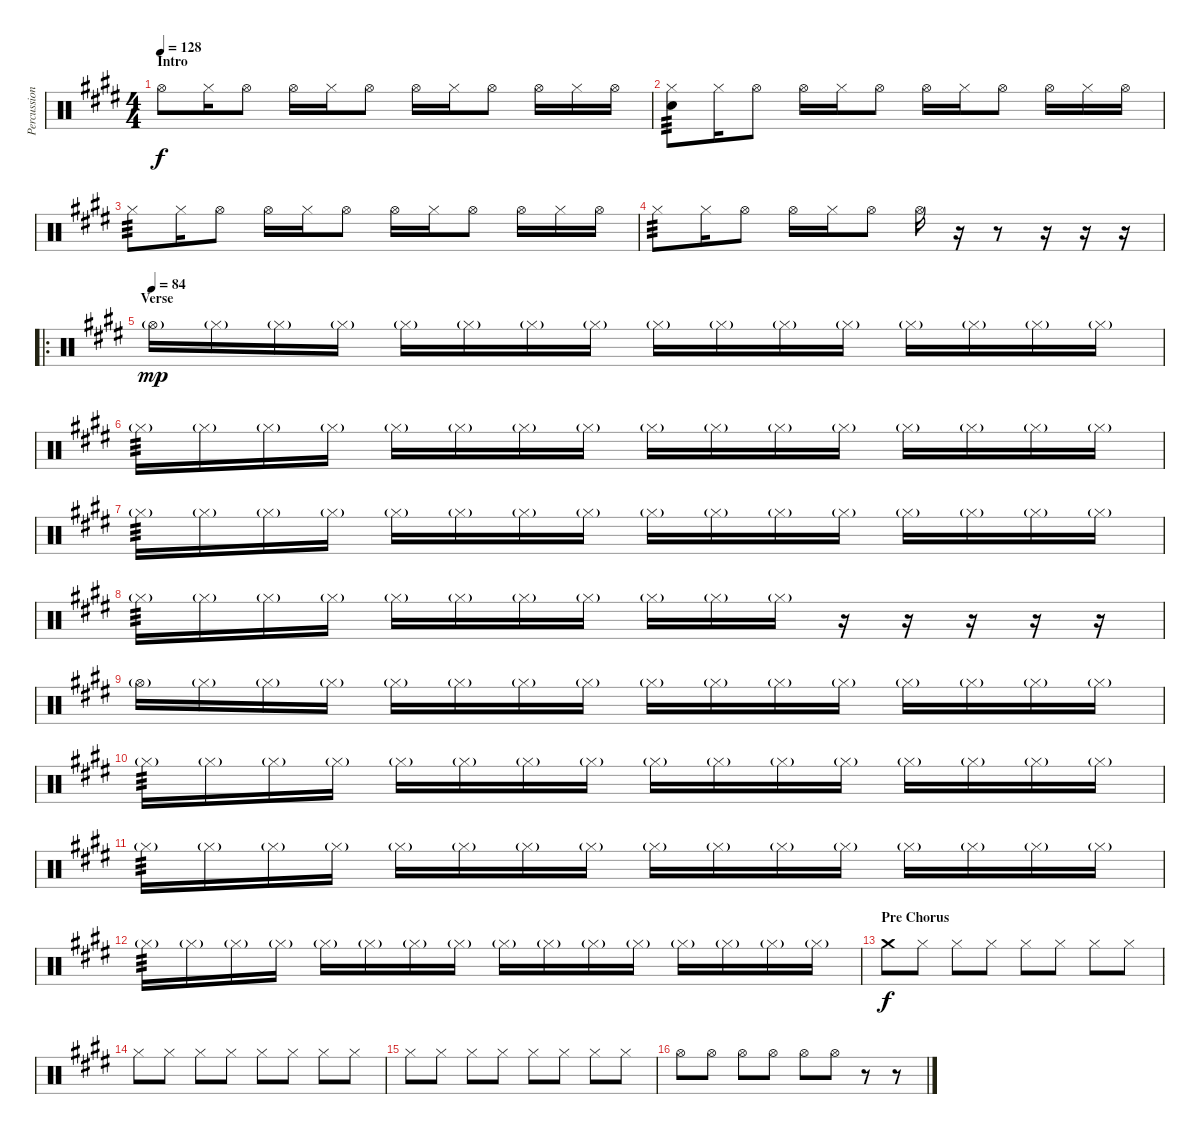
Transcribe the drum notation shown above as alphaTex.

\track ("Percussion" "Percussion") {instrument percussion}
\staff {score}
\articulation defaults
\ts (4 4)
\section ("" "Intro")
\tempo 128
\tempo 84
\tempo 128
\clef neutral
\ks e "Hi-Hat (open)".8{dy f} "Hi-Hat (closed)".16 "Hi-Hat (open)".8 "Hi-Hat (open)".16 "Hi-Hat (closed)".16 "Hi-Hat (open)".8 "Hi-Hat (open)".16 "Hi-Hat (closed)".16 "Hi-Hat (open)".8 "Hi-Hat (open)".16 "Hi-Hat (closed)".16 "Hi-Hat (open)".16
|
("Hi-Hat (closed)" "Snare (hit)").8{tp 3} "Hi-Hat (closed)".16 "Hi-Hat (open)".8 "Hi-Hat (open)".16 "Hi-Hat (closed)".16 "Hi-Hat (open)".8 "Hi-Hat (open)".16 "Hi-Hat (closed)".16 "Hi-Hat (open)".8 "Hi-Hat (open)".16 "Hi-Hat (closed)".16 "Hi-Hat (open)".16 |
"Hi-Hat (closed)".8{tp 3} "Hi-Hat (closed)".16 "Hi-Hat (open)".8 "Hi-Hat (open)".16 "Hi-Hat (closed)".16 "Hi-Hat (open)".8 "Hi-Hat (open)".16 "Hi-Hat (closed)".16 "Hi-Hat (open)".8 "Hi-Hat (open)".16 "Hi-Hat (closed)".16 "Hi-Hat (open)".16 |
"Hi-Hat (closed)".8{tp 3} "Hi-Hat (closed)".16 "Hi-Hat (open)".8 "Hi-Hat (open)".16 "Hi-Hat (closed)".16 "Hi-Hat (open)".8 "Hi-Hat (open)".16 r.16 r.8 r.16 r.16 r.16 |
\ro
\section ("" "Verse")
\tempo (84)
"Hi-Hat (open)"{g}.16{dy mp} "Hi-Hat (closed)"{g}.16 "Hi-Hat (closed)"{g}.16 "Hi-Hat (closed)"{g}.16 "Hi-Hat (closed)"{g}.16 "Hi-Hat (closed)"{g}.16 "Hi-Hat (closed)"{g}.16 "Hi-Hat (closed)"{g}.16 "Hi-Hat (closed)"{g}.16 "Hi-Hat (closed)"{g}.16 "Hi-Hat (closed)"{g}.16 "Hi-Hat (closed)"{g}.16 "Hi-Hat (closed)"{g}.16 "Hi-Hat (closed)"{g}.16 "Hi-Hat (closed)"{g}.16 "Hi-Hat (closed)"{g}.16 |
"Hi-Hat (closed)"{g}.16{tp 3} "Hi-Hat (closed)"{g}.16 "Hi-Hat (closed)"{g}.16 "Hi-Hat (closed)"{g}.16 "Hi-Hat (closed)"{g}.16 "Hi-Hat (closed)"{g}.16 "Hi-Hat (closed)"{g}.16 "Hi-Hat (closed)"{g}.16 "Hi-Hat (closed)"{g}.16 "Hi-Hat (closed)"{g}.16 "Hi-Hat (closed)"{g}.16 "Hi-Hat (closed)"{g}.16 "Hi-Hat (closed)"{g}.16 "Hi-Hat (closed)"{g}.16 "Hi-Hat (closed)"{g}.16 "Hi-Hat (closed)"{g}.16 |
"Hi-Hat (closed)"{g}.16{tp 3} "Hi-Hat (closed)"{g}.16 "Hi-Hat (closed)"{g}.16 "Hi-Hat (closed)"{g}.16 "Hi-Hat (closed)"{g}.16 "Hi-Hat (closed)"{g}.16 "Hi-Hat (closed)"{g}.16 "Hi-Hat (closed)"{g}.16 "Hi-Hat (closed)"{g}.16 "Hi-Hat (closed)"{g}.16 "Hi-Hat (closed)"{g}.16 "Hi-Hat (closed)"{g}.16 "Hi-Hat (closed)"{g}.16 "Hi-Hat (closed)"{g}.16 "Hi-Hat (closed)"{g}.16 "Hi-Hat (closed)"{g}.16 |
"Hi-Hat (closed)"{g}.16{tp 3} "Hi-Hat (closed)"{g}.16 "Hi-Hat (closed)"{g}.16 "Hi-Hat (closed)"{g}.16 "Hi-Hat (closed)"{g}.16 "Hi-Hat (closed)"{g}.16 "Hi-Hat (closed)"{g}.16 "Hi-Hat (closed)"{g}.16 "Hi-Hat (closed)"{g}.16 "Hi-Hat (closed)"{g}.16 "Hi-Hat (closed)"{g}.16 r.16 r.16 r.16 r.16 r.16 |
"Hi-Hat (open)"{g}.16 "Hi-Hat (closed)"{g}.16 "Hi-Hat (closed)"{g}.16 "Hi-Hat (closed)"{g}.16 "Hi-Hat (closed)"{g}.16 "Hi-Hat (closed)"{g}.16 "Hi-Hat (closed)"{g}.16 "Hi-Hat (closed)"{g}.16 "Hi-Hat (closed)"{g}.16 "Hi-Hat (closed)"{g}.16 "Hi-Hat (closed)"{g}.16 "Hi-Hat (closed)"{g}.16 "Hi-Hat (closed)"{g}.16 "Hi-Hat (closed)"{g}.16 "Hi-Hat (closed)"{g}.16 "Hi-Hat (closed)"{g}.16 |
"Hi-Hat (closed)"{g}.16{tp 3} "Hi-Hat (closed)"{g}.16 "Hi-Hat (closed)"{g}.16 "Hi-Hat (closed)"{g}.16 "Hi-Hat (closed)"{g}.16 "Hi-Hat (closed)"{g}.16 "Hi-Hat (closed)"{g}.16 "Hi-Hat (closed)"{g}.16 "Hi-Hat (closed)"{g}.16 "Hi-Hat (closed)"{g}.16 "Hi-Hat (closed)"{g}.16 "Hi-Hat (closed)"{g}.16 "Hi-Hat (closed)"{g}.16 "Hi-Hat (closed)"{g}.16 "Hi-Hat (closed)"{g}.16 "Hi-Hat (closed)"{g}.16 |
"Hi-Hat (closed)"{g}.16{tp 3} "Hi-Hat (closed)"{g}.16 "Hi-Hat (closed)"{g}.16 "Hi-Hat (closed)"{g}.16 "Hi-Hat (closed)"{g}.16 "Hi-Hat (closed)"{g}.16 "Hi-Hat (closed)"{g}.16 "Hi-Hat (closed)"{g}.16 "Hi-Hat (closed)"{g}.16 "Hi-Hat (closed)"{g}.16 "Hi-Hat (closed)"{g}.16 "Hi-Hat (closed)"{g}.16 "Hi-Hat (closed)"{g}.16 "Hi-Hat (closed)"{g}.16 "Hi-Hat (closed)"{g}.16 "Hi-Hat (closed)"{g}.16 |
"Hi-Hat (closed)"{g}.16{tp 3} "Hi-Hat (closed)"{g}.16 "Hi-Hat (closed)"{g}.16 "Hi-Hat (closed)"{g}.16 "Hi-Hat (closed)"{g}.16 "Hi-Hat (closed)"{g}.16 "Hi-Hat (closed)"{g}.16 "Hi-Hat (closed)"{g}.16 "Hi-Hat (closed)"{g}.16 "Hi-Hat (closed)"{g}.16 "Hi-Hat (closed)"{g}.16 "Hi-Hat (closed)"{g}.16 "Hi-Hat (closed)"{g}.16 "Hi-Hat (closed)"{g}.16 "Hi-Hat (closed)"{g}.16 "Hi-Hat (closed)"{g}.16 |
\section ("" "Pre Chorus")
"Crash medium (hit)".8{dy f} "Hi-Hat (closed)".8 "Hi-Hat (closed)".8 "Hi-Hat (closed)".8 "Hi-Hat (closed)".8 "Hi-Hat (closed)".8 "Hi-Hat (closed)".8 "Hi-Hat (closed)".8 |
"Hi-Hat (closed)".8 "Hi-Hat (closed)".8 "Hi-Hat (closed)".8 "Hi-Hat (closed)".8 "Hi-Hat (closed)".8 "Hi-Hat (closed)".8 "Hi-Hat (closed)".8 "Hi-Hat (closed)".8 |
"Hi-Hat (closed)".8 "Hi-Hat (closed)".8 "Hi-Hat (closed)".8 "Hi-Hat (closed)".8 "Hi-Hat (closed)".8 "Hi-Hat (closed)".8 "Hi-Hat (closed)".8 "Hi-Hat (closed)".8 |
"Hi-Hat (open)".8{volume 8} "Hi-Hat (open)".8{volume 9} "Hi-Hat (open)".8{volume 10} "Hi-Hat (open)".8{volume 12} "Hi-Hat (open)".8{volume 11} "Hi-Hat (open)".8{volume 12} r.8 r.8
